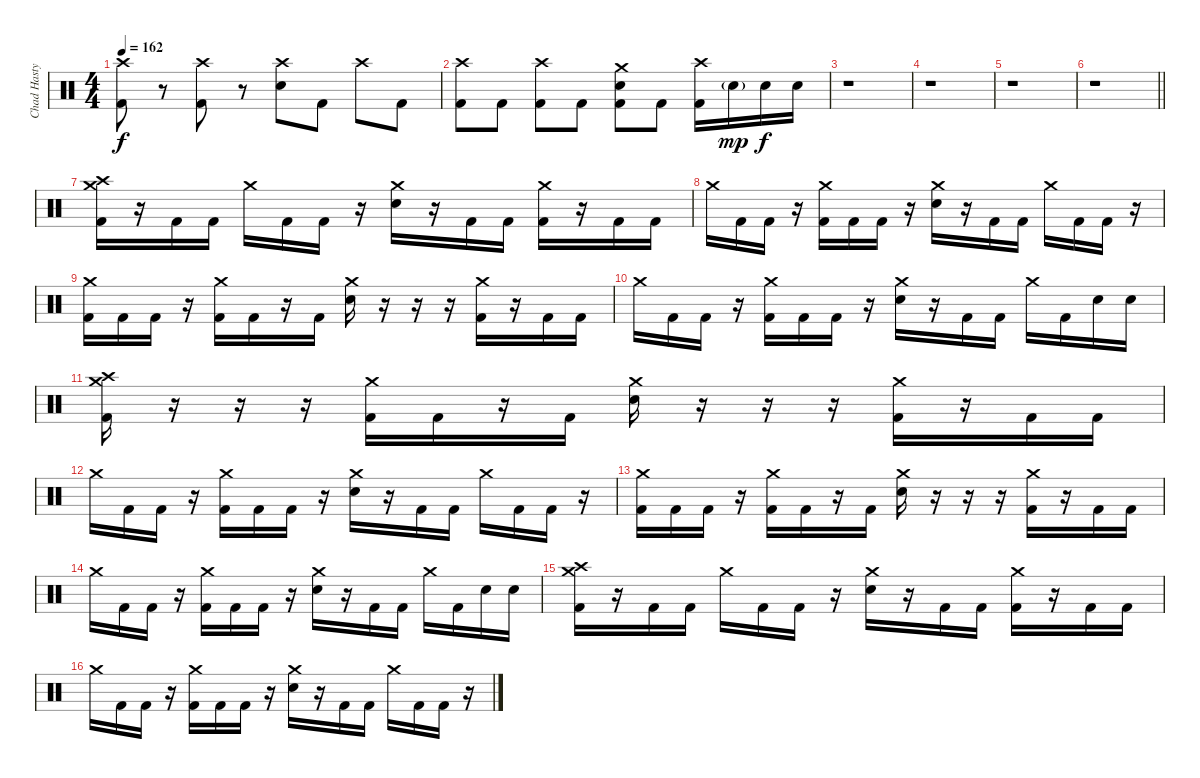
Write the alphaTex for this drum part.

\track ("Chad Hasty" "Chad Hasty") {instrument percussion}
\staff {score}
\articulation defaults
\ts (4 4)
\tempo 162
\clef neutral
\ks c
("Crash high (hit)" "Kick (hit) 2").8{dy f} r.8 ("Crash high (hit)" "Kick (hit) 2").8 r.8 ("Crash high (hit)" "Snare (hit) 2").8 "Kick (hit) 2".8 "Crash high (hit)".8 "Kick (hit) 2".8 |
("Crash high (hit)" "Kick (hit) 2").8 "Kick (hit) 2".8 ("Crash high (hit)" "Kick (hit) 2").8 "Kick (hit) 2".8 ("Crash medium (hit)" "Snare (hit) 2" "Kick (hit) 2").8 "Kick (hit) 2".8 ("Crash high (hit)" "Kick (hit) 2").16 "Snare (hit) 2"{g}.16{dy mp} "Snare (hit) 2".16{dy f} "Snare (hit) 2".16 |
r.1 |
r.1 |
r.1 |
\barLineRight lightlight
r.1 |
("Crash medium (hit)" "Crash high (hit)" "Kick (hit) 2").16 r.16 "Kick (hit) 2".16 "Kick (hit) 2".16 "Crash medium (hit)".16 "Kick (hit) 2".16 "Kick (hit) 2".16 r.16 ("Crash medium (hit)" "Snare (hit) 2").16 r.16 "Kick (hit) 2".16 "Kick (hit) 2".16 ("Crash medium (hit)" "Kick (hit) 2").16 r.16 "Kick (hit) 2".16 "Kick (hit) 2".16 |
"Crash medium (hit)".16 "Kick (hit) 2".16 "Kick (hit) 2".16 r.16 ("Crash medium (hit)" "Kick (hit) 2").16 "Kick (hit) 2".16 "Kick (hit) 2".16 r.16 ("Crash medium (hit)" "Snare (hit) 2").16 r.16 "Kick (hit) 2".16 "Kick (hit) 2".16 "Crash medium (hit)".16 "Kick (hit) 2".16 "Kick (hit) 2".16 r.16 |
("Crash medium (hit)" "Kick (hit) 2").16 "Kick (hit) 2".16 "Kick (hit) 2".16 r.16 ("Crash medium (hit)" "Kick (hit) 2").16 "Kick (hit) 2".16 r.16 "Kick (hit) 2".16 ("Crash medium (hit)" "Snare (hit) 2").16 r.16 r.16 r.16 ("Crash medium (hit)" "Kick (hit) 2").16 r.16 "Kick (hit) 2".16 "Kick (hit) 2".16 |
"Crash medium (hit)".16 "Kick (hit) 2".16 "Kick (hit) 2".16 r.16 ("Crash medium (hit)" "Kick (hit) 2").16 "Kick (hit) 2".16 "Kick (hit) 2".16 r.16 ("Crash medium (hit)" "Snare (hit) 2").16 r.16 "Kick (hit) 2".16 "Kick (hit) 2".16 "Crash medium (hit)".16 "Kick (hit) 2".16 "Snare (hit) 2".16 "Snare (hit) 2".16 |
("Crash medium (hit)" "Crash high (hit)" "Kick (hit) 2").16 r.16 r.16 r.16 ("Crash medium (hit)" "Kick (hit) 2").16 "Kick (hit) 2".16 r.16 "Kick (hit) 2".16 ("Crash medium (hit)" "Snare (hit) 2").16 r.16 r.16 r.16 ("Crash medium (hit)" "Kick (hit) 2").16 r.16 "Kick (hit) 2".16 "Kick (hit) 2".16 |
"Crash medium (hit)".16 "Kick (hit) 2".16 "Kick (hit) 2".16 r.16 ("Crash medium (hit)" "Kick (hit) 2").16 "Kick (hit) 2".16 "Kick (hit) 2".16 r.16 ("Crash medium (hit)" "Snare (hit) 2").16 r.16 "Kick (hit) 2".16 "Kick (hit) 2".16 "Crash medium (hit)".16 "Kick (hit) 2".16 "Kick (hit) 2".16 r.16 |
("Crash medium (hit)" "Kick (hit) 2").16 "Kick (hit) 2".16 "Kick (hit) 2".16 r.16 ("Crash medium (hit)" "Kick (hit) 2").16 "Kick (hit) 2".16 r.16 "Kick (hit) 2".16 ("Crash medium (hit)" "Snare (hit) 2").16 r.16 r.16 r.16 ("Crash medium (hit)" "Kick (hit) 2").16 r.16 "Kick (hit) 2".16 "Kick (hit) 2".16 |
"Crash medium (hit)".16 "Kick (hit) 2".16 "Kick (hit) 2".16 r.16 ("Crash medium (hit)" "Kick (hit) 2").16 "Kick (hit) 2".16 "Kick (hit) 2".16 r.16 ("Crash medium (hit)" "Snare (hit) 2").16 r.16 "Kick (hit) 2".16 "Kick (hit) 2".16 "Crash medium (hit)".16 "Kick (hit) 2".16 "Snare (hit) 2".16 "Snare (hit) 2".16 |
("Crash medium (hit)" "Crash high (hit)" "Kick (hit) 2").16 r.16 "Kick (hit) 2".16 "Kick (hit) 2".16 "Crash medium (hit)".16 "Kick (hit) 2".16 "Kick (hit) 2".16 r.16 ("Crash medium (hit)" "Snare (hit) 2").16 r.16 "Kick (hit) 2".16 "Kick (hit) 2".16 ("Crash medium (hit)" "Kick (hit) 2").16 r.16 "Kick (hit) 2".16 "Kick (hit) 2".16 |
"Crash medium (hit)".16 "Kick (hit) 2".16 "Kick (hit) 2".16 r.16 ("Crash medium (hit)" "Kick (hit) 2").16 "Kick (hit) 2".16 "Kick (hit) 2".16 r.16 ("Crash medium (hit)" "Snare (hit) 2").16 r.16 "Kick (hit) 2".16 "Kick (hit) 2".16 "Crash medium (hit)".16 "Kick (hit) 2".16 "Kick (hit) 2".16 r.16
